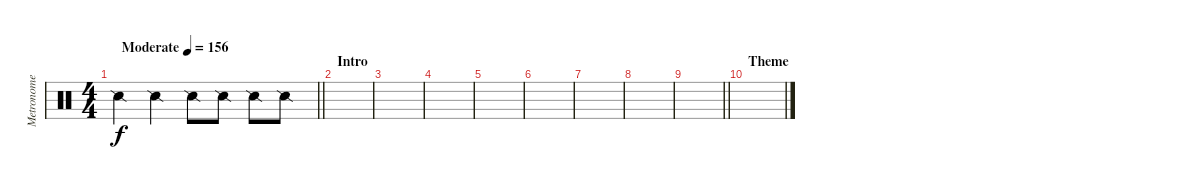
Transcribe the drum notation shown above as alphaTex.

\track ("Metronome" "Metronome") {instrument percussion}
\staff {score}
\articulation defaults
\ts (4 4)
\tempo (156 "Moderate")
\clef neutral
\barLineRight lightlight
\ks c "Snare (side stick) 2".4{dy f} "Snare (side stick) 2".4 "Snare (side stick) 2".8 "Snare (side stick) 2".8 "Snare (side stick) 2".8 "Snare (side stick) 2".8
|
\section ("" "Intro")
|
|
|
|
|
|
|
\barLineRight lightlight
|
\section ("" "Theme")
